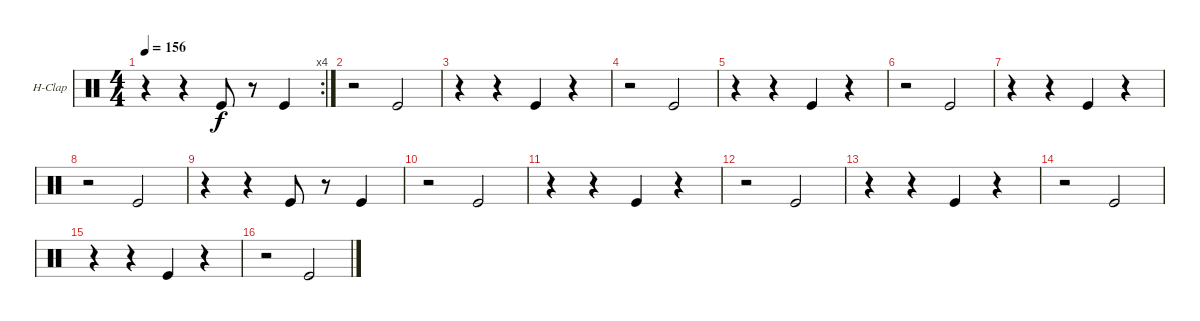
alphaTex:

\defaultSystemsLayout 4
\bracketExtendMode groupsimilarinstruments
\firstSystemTrackNameOrientation horizontal
\otherSystemsTrackNameOrientation horizontal
\track ("Hand Clap" "H-Clap") {instrument percussion}
\staff {score}
\articulation defaults
\rc 4
\ts (4 4)
\tempo 156
\clef neutral
\ks c
r.4{dy f} r.4 "Kick (hit)".8 r.8 "Kick (hit)".4 |
r.2 "Kick (hit)".2 |
r.4 r.4 "Kick (hit)".4 r.4 |
r.2 "Kick (hit)".2 |
r.4 r.4 "Kick (hit)".4 r.4 |
r.2 "Kick (hit)".2 |
r.4 r.4 "Kick (hit)".4 r.4 |
r.2 "Kick (hit)".2 |
r.4 r.4 "Kick (hit)".8 r.8 "Kick (hit)".4 |
r.2 "Kick (hit)".2 |
r.4 r.4 "Kick (hit)".4 r.4 |
r.2 "Kick (hit)".2 |
r.4 r.4 "Kick (hit)".4 r.4 |
r.2 "Kick (hit)".2 |
r.4 r.4 "Kick (hit)".4 r.4 |
r.2 "Kick (hit)".2
